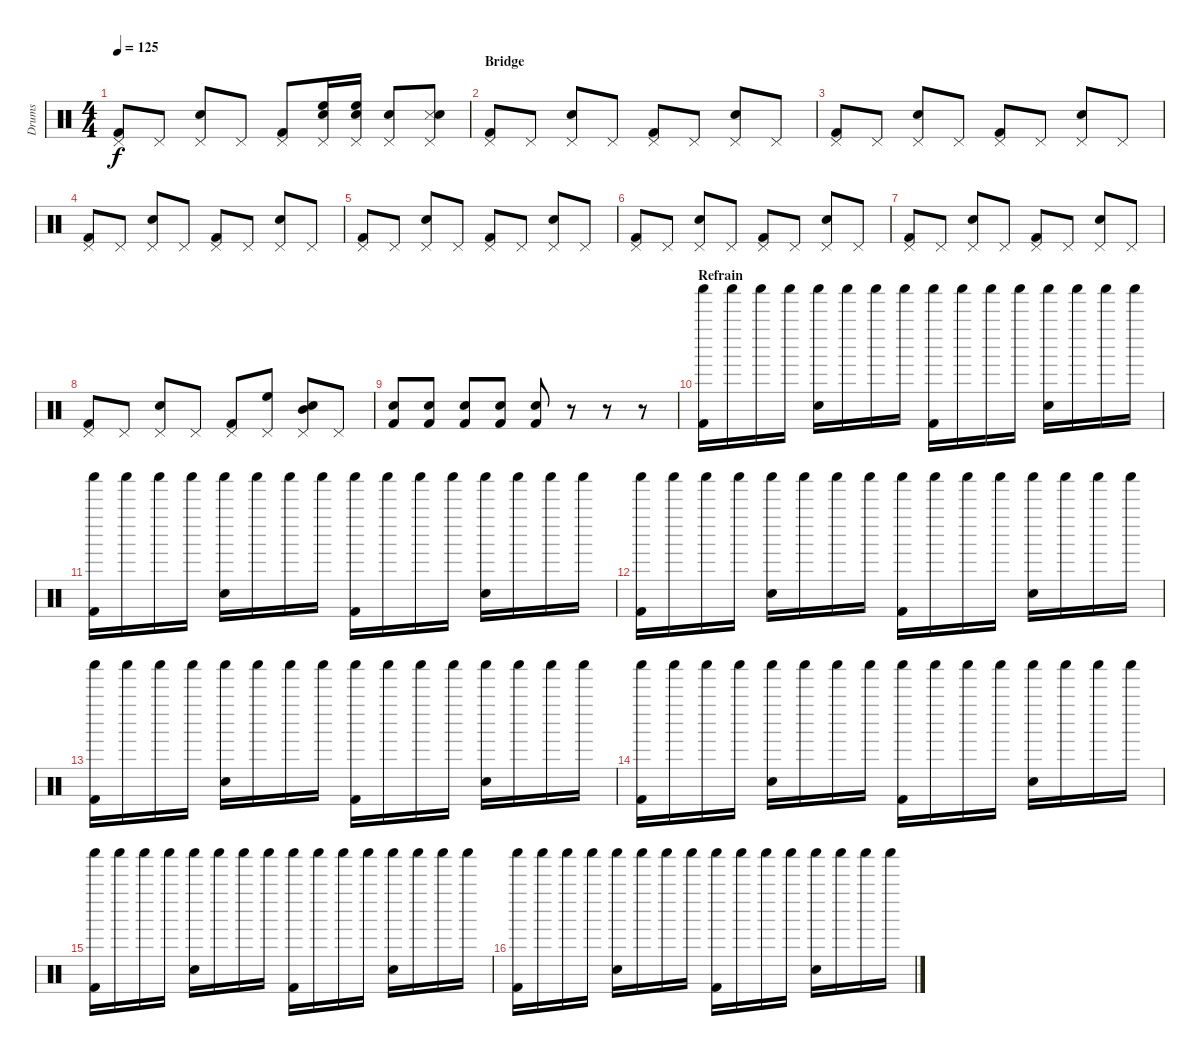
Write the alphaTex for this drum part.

\track ("Drums" "Drums") {instrument percussion}
\staff {score}
\articulation defaults
\ts (4 4)
\tempo 125
\clef neutral
\ks c
("Pedal Hi-Hat (hit)" "Kick (hit) 2").8{dy f} "Pedal Hi-Hat (hit)".8 ("Pedal Hi-Hat (hit)" "Snare (hit) 2").8 "Pedal Hi-Hat (hit)".8 ("Pedal Hi-Hat (hit)" "Kick (hit) 2").8 ("Pedal Hi-Hat (hit)" "High Floor Tom (hit)" "Electric Snare (hit)").16 ("Pedal Hi-Hat (hit)" "High Floor Tom (hit)" "Electric Snare (hit)").16 ("Pedal Hi-Hat (hit)" "Snare (hit) 2").8 ("Pedal Hi-Hat (hit)" "Snare (side stick) 3" "Snare (hit) 2").8 |
\section ("" "Bridge")
("Pedal Hi-Hat (hit)" "Kick (hit) 2").8 "Pedal Hi-Hat (hit)".8 ("Pedal Hi-Hat (hit)" "Snare (hit) 2").8 "Pedal Hi-Hat (hit)".8 ("Pedal Hi-Hat (hit)" "Kick (hit) 2").8 "Pedal Hi-Hat (hit)".8 ("Pedal Hi-Hat (hit)" "Snare (hit) 2").8 "Pedal Hi-Hat (hit)".8 |
("Pedal Hi-Hat (hit)" "Kick (hit) 2").8 "Pedal Hi-Hat (hit)".8 ("Pedal Hi-Hat (hit)" "Snare (hit) 2").8 "Pedal Hi-Hat (hit)".8 ("Pedal Hi-Hat (hit)" "Kick (hit) 2").8 "Pedal Hi-Hat (hit)".8 ("Pedal Hi-Hat (hit)" "Snare (hit) 2").8 "Pedal Hi-Hat (hit)".8 |
("Pedal Hi-Hat (hit)" "Kick (hit) 2").8 "Pedal Hi-Hat (hit)".8 ("Pedal Hi-Hat (hit)" "Snare (hit) 2").8 "Pedal Hi-Hat (hit)".8 ("Pedal Hi-Hat (hit)" "Kick (hit) 2").8 "Pedal Hi-Hat (hit)".8 ("Pedal Hi-Hat (hit)" "Snare (hit) 2").8 "Pedal Hi-Hat (hit)".8 |
("Pedal Hi-Hat (hit)" "Kick (hit) 2").8 "Pedal Hi-Hat (hit)".8 ("Pedal Hi-Hat (hit)" "Snare (hit) 2").8 "Pedal Hi-Hat (hit)".8 ("Pedal Hi-Hat (hit)" "Kick (hit) 2").8 "Pedal Hi-Hat (hit)".8 ("Pedal Hi-Hat (hit)" "Snare (hit) 2").8 "Pedal Hi-Hat (hit)".8 |
("Pedal Hi-Hat (hit)" "Kick (hit) 2").8 "Pedal Hi-Hat (hit)".8 ("Pedal Hi-Hat (hit)" "Snare (hit) 2").8 "Pedal Hi-Hat (hit)".8 ("Pedal Hi-Hat (hit)" "Kick (hit) 2").8 "Pedal Hi-Hat (hit)".8 ("Pedal Hi-Hat (hit)" "Snare (hit) 2").8 "Pedal Hi-Hat (hit)".8 |
("Pedal Hi-Hat (hit)" "Kick (hit) 2").8 "Pedal Hi-Hat (hit)".8 ("Pedal Hi-Hat (hit)" "Snare (hit) 2").8 "Pedal Hi-Hat (hit)".8 ("Pedal Hi-Hat (hit)" "Kick (hit) 2").8 "Pedal Hi-Hat (hit)".8 ("Pedal Hi-Hat (hit)" "Snare (hit) 2").8 "Pedal Hi-Hat (hit)".8 |
("Pedal Hi-Hat (hit)" "Kick (hit) 2").8 "Pedal Hi-Hat (hit)".8 ("Pedal Hi-Hat (hit)" "Snare (hit) 2").8 "Pedal Hi-Hat (hit)".8 ("Pedal Hi-Hat (hit)" "Kick (hit) 2").8 ("Pedal Hi-Hat (hit)" "High Floor Tom (hit)").8 ("Pedal Hi-Hat (hit)" "Snare (hit) 2" "Mid Tom (hit)").8 "Pedal Hi-Hat (hit)".8 |
("Snare (hit) 2" "Kick (hit) 2").8 ("Snare (hit) 2" "Kick (hit) 2").8 ("Snare (hit) 2" "Kick (hit) 2").8 ("Snare (hit) 2" "Kick (hit) 2").8 ("Snare (hit) 2" "Kick (hit) 2").8 r.8 r.8 r.8 |
\section ("" "Refrain")
("Shaker (hit)" "Kick (hit) 2").16 "Shaker (hit)".16 "Shaker (hit)".16 "Shaker (hit)".16 ("Shaker (hit)" "Snare (hit) 2").16 "Shaker (hit)".16 "Shaker (hit)".16 "Shaker (hit)".16 ("Shaker (hit)" "Kick (hit) 2").16 "Shaker (hit)".16 "Shaker (hit)".16 "Shaker (hit)".16 ("Shaker (hit)" "Snare (hit) 2").16 "Shaker (hit)".16 "Shaker (hit)".16 "Shaker (hit)".16 |
("Shaker (hit)" "Kick (hit) 2").16 "Shaker (hit)".16 "Shaker (hit)".16 "Shaker (hit)".16 ("Shaker (hit)" "Snare (hit) 2").16 "Shaker (hit)".16 "Shaker (hit)".16 "Shaker (hit)".16 ("Shaker (hit)" "Kick (hit) 2").16 "Shaker (hit)".16 "Shaker (hit)".16 "Shaker (hit)".16 ("Shaker (hit)" "Snare (hit) 2").16 "Shaker (hit)".16 "Shaker (hit)".16 "Shaker (hit)".16 |
("Shaker (hit)" "Kick (hit) 2").16 "Shaker (hit)".16 "Shaker (hit)".16 "Shaker (hit)".16 ("Shaker (hit)" "Snare (hit) 2").16 "Shaker (hit)".16 "Shaker (hit)".16 "Shaker (hit)".16 ("Shaker (hit)" "Kick (hit) 2").16 "Shaker (hit)".16 "Shaker (hit)".16 "Shaker (hit)".16 ("Shaker (hit)" "Snare (hit) 2").16 "Shaker (hit)".16 "Shaker (hit)".16 "Shaker (hit)".16 |
("Shaker (hit)" "Kick (hit) 2").16 "Shaker (hit)".16 "Shaker (hit)".16 "Shaker (hit)".16 ("Shaker (hit)" "Snare (hit) 2").16 "Shaker (hit)".16 "Shaker (hit)".16 "Shaker (hit)".16 ("Shaker (hit)" "Kick (hit) 2").16 "Shaker (hit)".16 "Shaker (hit)".16 "Shaker (hit)".16 ("Shaker (hit)" "Snare (hit) 2").16 "Shaker (hit)".16 "Shaker (hit)".16 "Shaker (hit)".16 |
("Shaker (hit)" "Kick (hit) 2").16 "Shaker (hit)".16 "Shaker (hit)".16 "Shaker (hit)".16 ("Shaker (hit)" "Snare (hit) 2").16 "Shaker (hit)".16 "Shaker (hit)".16 "Shaker (hit)".16 ("Shaker (hit)" "Kick (hit) 2").16 "Shaker (hit)".16 "Shaker (hit)".16 "Shaker (hit)".16 ("Shaker (hit)" "Snare (hit) 2").16 "Shaker (hit)".16 "Shaker (hit)".16 "Shaker (hit)".16 |
("Shaker (hit)" "Kick (hit) 2").16 "Shaker (hit)".16 "Shaker (hit)".16 "Shaker (hit)".16 ("Shaker (hit)" "Snare (hit) 2").16 "Shaker (hit)".16 "Shaker (hit)".16 "Shaker (hit)".16 ("Shaker (hit)" "Kick (hit) 2").16 "Shaker (hit)".16 "Shaker (hit)".16 "Shaker (hit)".16 ("Shaker (hit)" "Snare (hit) 2").16 "Shaker (hit)".16 "Shaker (hit)".16 "Shaker (hit)".16 |
("Shaker (hit)" "Kick (hit) 2").16 "Shaker (hit)".16 "Shaker (hit)".16 "Shaker (hit)".16 ("Shaker (hit)" "Snare (hit) 2").16 "Shaker (hit)".16 "Shaker (hit)".16 "Shaker (hit)".16 ("Shaker (hit)" "Kick (hit) 2").16 "Shaker (hit)".16 "Shaker (hit)".16 "Shaker (hit)".16 ("Shaker (hit)" "Snare (hit) 2").16 "Shaker (hit)".16 "Shaker (hit)".16 "Shaker (hit)".16
